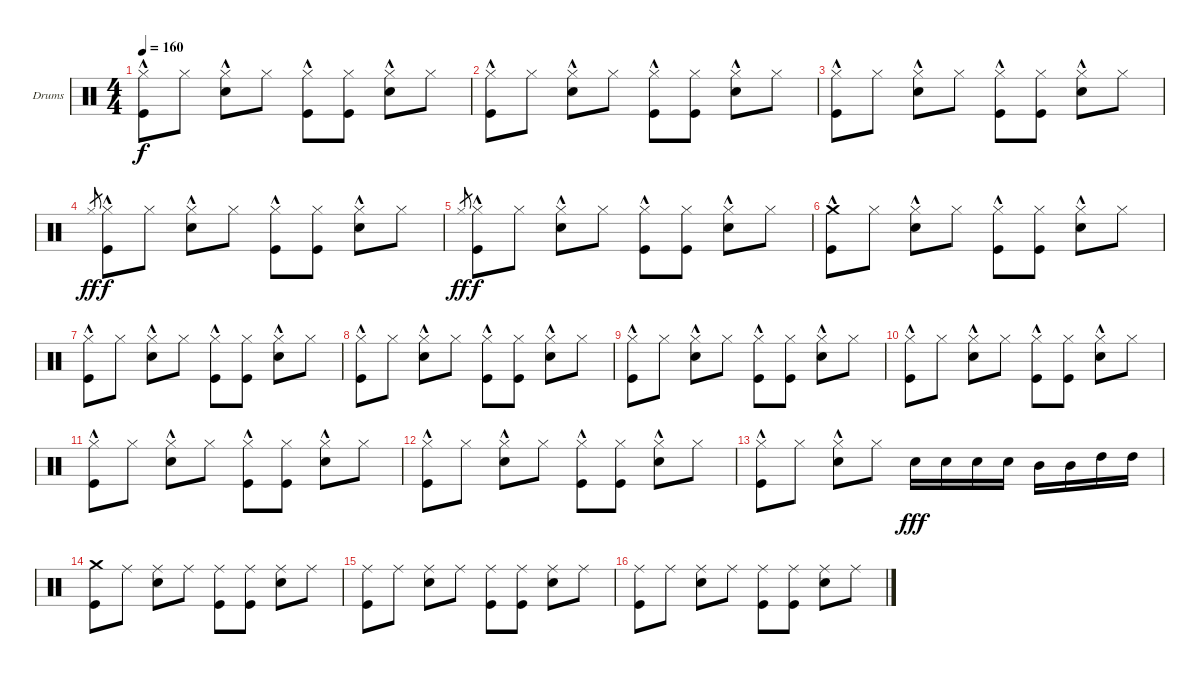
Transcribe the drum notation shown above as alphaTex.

\bracketExtendMode groupsimilarinstruments
\firstSystemTrackNameOrientation horizontal
\otherSystemsTrackNameOrientation horizontal
\track ("Drumkit" "Drums") {instrument percussion}
\staff {score}
\articulation defaults
\ts (4 4)
\tempo 160
\clef neutral
\ks c
("Kick (hit)" "Hi-Hat (closed)"{hac}).8{dy f} "Hi-Hat (closed)".8 ("Snare (hit) 2" "Hi-Hat (closed)"{hac}).8 "Hi-Hat (closed)".8 ("Kick (hit)" "Hi-Hat (closed)"{hac}).8 ("Kick (hit)" "Hi-Hat (closed)").8 ("Snare (hit) 2" "Hi-Hat (closed)"{hac}).8 "Hi-Hat (closed)".8 |
("Kick (hit)" "Hi-Hat (closed)"{hac}).8 "Hi-Hat (closed)".8 ("Snare (hit) 2" "Hi-Hat (closed)"{hac}).8 "Hi-Hat (closed)".8 ("Kick (hit)" "Hi-Hat (closed)"{hac}).8 ("Kick (hit)" "Hi-Hat (closed)").8 ("Snare (hit) 2" "Hi-Hat (closed)"{hac}).8 "Hi-Hat (closed)".8 |
("Kick (hit)" "Hi-Hat (closed)"{hac}).8 "Hi-Hat (closed)".8 ("Snare (hit) 2" "Hi-Hat (closed)"{hac}).8 "Hi-Hat (closed)".8 ("Kick (hit)" "Hi-Hat (closed)"{hac}).8 ("Kick (hit)" "Hi-Hat (closed)").8 ("Snare (hit) 2" "Hi-Hat (closed)"{hac}).8 "Hi-Hat (closed)".8 |
"Hi-Hat (closed)".8{gr dy ff} ("Kick (hit)" "Hi-Hat (closed)"{hac}).8{dy f} "Hi-Hat (closed)".8 ("Snare (hit) 2" "Hi-Hat (closed)"{hac}).8 "Hi-Hat (closed)".8 ("Kick (hit)" "Hi-Hat (closed)"{hac}).8 ("Kick (hit)" "Hi-Hat (closed)").8 ("Snare (hit) 2" "Hi-Hat (closed)"{hac}).8 "Hi-Hat (closed)".8 |
"Hi-Hat (closed)".8{gr dy ff} ("Kick (hit)" "Hi-Hat (closed)"{hac}).8{dy f} "Hi-Hat (closed)".8 ("Snare (hit) 2" "Hi-Hat (closed)"{hac}).8 "Hi-Hat (closed)".8 ("Kick (hit)" "Hi-Hat (closed)"{hac}).8 ("Kick (hit)" "Hi-Hat (closed)").8 ("Snare (hit) 2" "Hi-Hat (closed)"{hac}).8 "Hi-Hat (closed)".8 |
("Kick (hit)" "Crash medium (hit)"{hac}).8 "Hi-Hat (closed)".8 ("Snare (hit) 2" "Hi-Hat (closed)"{hac}).8 "Hi-Hat (closed)".8 ("Kick (hit)" "Hi-Hat (closed)"{hac}).8 ("Kick (hit)" "Hi-Hat (closed)").8 ("Snare (hit) 2" "Hi-Hat (closed)"{hac}).8 "Hi-Hat (closed)".8 |
("Kick (hit)" "Hi-Hat (closed)"{hac}).8 "Hi-Hat (closed)".8 ("Snare (hit) 2" "Hi-Hat (closed)"{hac}).8 "Hi-Hat (closed)".8 ("Kick (hit)" "Hi-Hat (closed)"{hac}).8 ("Kick (hit)" "Hi-Hat (closed)").8 ("Snare (hit) 2" "Hi-Hat (closed)"{hac}).8 "Hi-Hat (closed)".8 |
("Kick (hit)" "Hi-Hat (closed)"{hac}).8 "Hi-Hat (closed)".8 ("Snare (hit) 2" "Hi-Hat (closed)"{hac}).8 "Hi-Hat (closed)".8 ("Kick (hit)" "Hi-Hat (closed)"{hac}).8 ("Kick (hit)" "Hi-Hat (closed)").8 ("Snare (hit) 2" "Hi-Hat (closed)"{hac}).8 "Hi-Hat (closed)".8 |
("Kick (hit)" "Hi-Hat (closed)"{hac}).8 "Hi-Hat (closed)".8 ("Snare (hit) 2" "Hi-Hat (closed)"{hac}).8 "Hi-Hat (closed)".8 ("Kick (hit)" "Hi-Hat (closed)"{hac}).8 ("Kick (hit)" "Hi-Hat (closed)").8 ("Snare (hit) 2" "Hi-Hat (closed)"{hac}).8 "Hi-Hat (closed)".8 |
("Kick (hit)" "Hi-Hat (closed)"{hac}).8 "Hi-Hat (closed)".8 ("Snare (hit) 2" "Hi-Hat (closed)"{hac}).8 "Hi-Hat (closed)".8 ("Kick (hit)" "Hi-Hat (closed)"{hac}).8 ("Kick (hit)" "Hi-Hat (closed)").8 ("Snare (hit) 2" "Hi-Hat (closed)"{hac}).8 "Hi-Hat (closed)".8 |
("Kick (hit)" "Hi-Hat (closed)"{hac}).8 "Hi-Hat (closed)".8 ("Snare (hit) 2" "Hi-Hat (closed)"{hac}).8 "Hi-Hat (closed)".8 ("Kick (hit)" "Hi-Hat (closed)"{hac}).8 ("Kick (hit)" "Hi-Hat (closed)").8 ("Snare (hit) 2" "Hi-Hat (closed)"{hac}).8 "Hi-Hat (closed)".8 |
("Kick (hit)" "Hi-Hat (closed)"{hac}).8 "Hi-Hat (closed)".8 ("Snare (hit) 2" "Hi-Hat (closed)"{hac}).8 "Hi-Hat (closed)".8 ("Kick (hit)" "Hi-Hat (closed)"{hac}).8 ("Kick (hit)" "Hi-Hat (closed)").8 ("Snare (hit) 2" "Hi-Hat (closed)"{hac}).8 "Hi-Hat (closed)".8 |
("Kick (hit)" "Hi-Hat (closed)"{hac}).8 "Hi-Hat (closed)".8 ("Snare (hit) 2" "Hi-Hat (closed)"{hac}).8 "Hi-Hat (closed)".8 "Snare (hit) 2".16{dy fff} "Snare (hit) 2".16 "Snare (hit) 2".16 "Snare (hit) 2".16 "Mid Tom (hit)".16 "Mid Tom (hit)".16 "High Tom (hit)".16 "High Tom (hit)".16 |
("Kick (hit)" "Crash medium (hit)").8 "Ride (middle)".8 ("Ride (middle)" "Snare (hit) 2").8 "Ride (middle)".8 ("Ride (middle)" "Kick (hit)").8 ("Ride (middle)" "Kick (hit)").8 ("Ride (middle)" "Snare (hit) 2").8 "Ride (middle)".8 |
("Kick (hit)" "Ride (middle)").8 "Ride (middle)".8 ("Ride (middle)" "Snare (hit) 2").8 "Ride (middle)".8 ("Ride (middle)" "Kick (hit)").8 ("Ride (middle)" "Kick (hit)").8 ("Ride (middle)" "Snare (hit) 2").8 "Ride (middle)".8 |
("Kick (hit)" "Ride (middle)").8 "Ride (middle)".8 ("Ride (middle)" "Snare (hit) 2").8 "Ride (middle)".8 ("Ride (middle)" "Kick (hit)").8 ("Ride (middle)" "Kick (hit)").8 ("Ride (middle)" "Snare (hit) 2").8 "Ride (middle)".8
